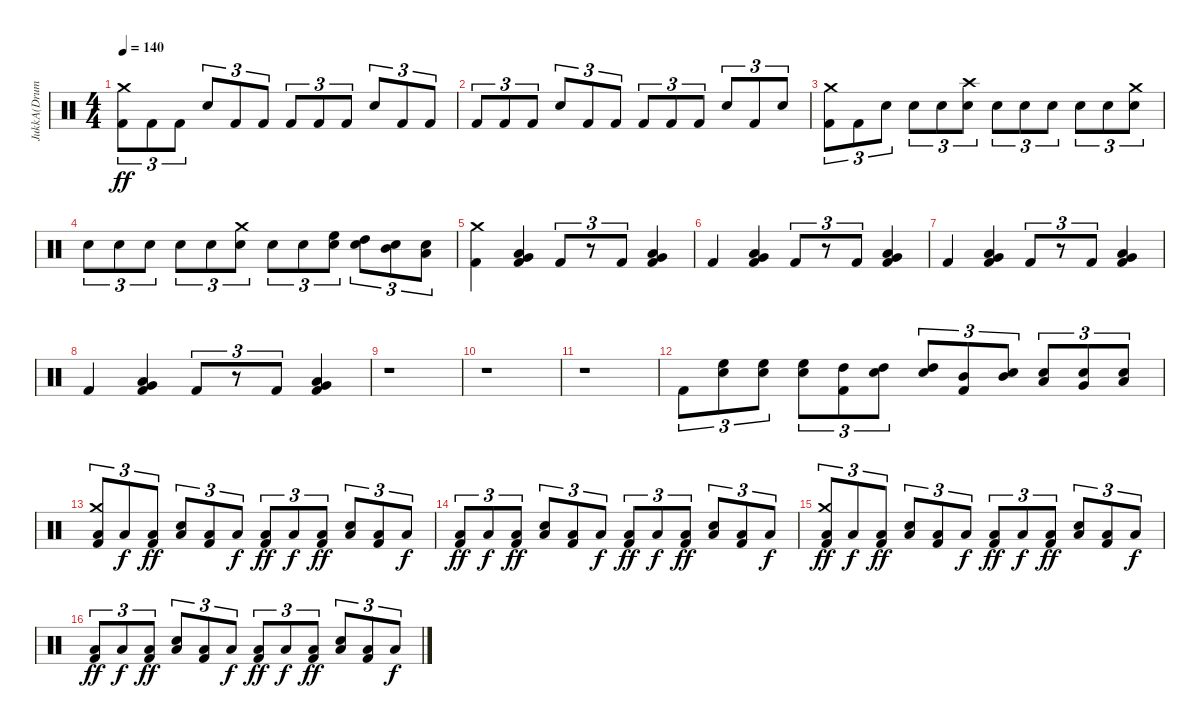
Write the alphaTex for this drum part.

\track ("JukkA(Drums)" "JukkA(Drum") {instrument percussion}
\staff {score}
\articulation defaults
\ts (4 4)
\tempo 140
\clef neutral
\ks c
("Kick (hit) 2" "Crash medium (hit)").8{tu (3 2) dy ff} "Kick (hit) 2".8{tu (3 2)} "Kick (hit) 2".8{tu (3 2)} "Snare (hit) 2".8{tu (3 2)} "Kick (hit) 2".8{tu (3 2)} "Kick (hit) 2".8{tu (3 2)} "Kick (hit) 2".8{tu (3 2)} "Kick (hit) 2".8{tu (3 2)} "Kick (hit) 2".8{tu (3 2)} "Snare (hit) 2".8{tu (3 2)} "Kick (hit) 2".8{tu (3 2)} "Kick (hit) 2".8{tu (3 2)} |
"Kick (hit) 2".8{tu (3 2)} "Kick (hit) 2".8{tu (3 2)} "Kick (hit) 2".8{tu (3 2)} "Snare (hit) 2".8{tu (3 2)} "Kick (hit) 2".8{tu (3 2)} "Kick (hit) 2".8{tu (3 2)} "Kick (hit) 2".8{tu (3 2)} "Kick (hit) 2".8{tu (3 2)} "Kick (hit) 2".8{tu (3 2)} "Snare (hit) 2".8{tu (3 2)} "Kick (hit) 2".8{tu (3 2)} "Snare (hit) 2".8{tu (3 2)} |
("Kick (hit) 2" "Crash medium (hit)").8{tu (3 2)} "Kick (hit) 2".8{tu (3 2)} "Snare (hit) 2".8{tu (3 2)} "Snare (hit) 2".8{tu (3 2)} "Snare (hit) 2".8{tu (3 2)} ("Snare (hit) 2" "Crash high (hit)").8{tu (3 2)} "Snare (hit) 2".8{tu (3 2)} "Snare (hit) 2".8{tu (3 2)} "Snare (hit) 2".8{tu (3 2)} "Snare (hit) 2".8{tu (3 2)} "Snare (hit) 2".8{tu (3 2)} ("Snare (hit) 2" "Crash medium (hit)").8{tu (3 2)} |
"Snare (hit) 2".8{tu (3 2)} "Snare (hit) 2".8{tu (3 2)} "Snare (hit) 2".8{tu (3 2)} "Snare (hit) 2".8{tu (3 2)} "Snare (hit) 2".8{tu (3 2)} ("Snare (hit) 2" "Crash medium (hit)").8{tu (3 2)} "Snare (hit) 2".8{tu (3 2)} "Snare (hit) 2".8{tu (3 2)} ("Snare (hit) 2" "High Floor Tom (hit)").8{tu (3 2)} ("Snare (hit) 2" "High Tom (hit)").8{tu (3 2)} ("Snare (hit) 2" "Mid Tom (hit)").8{tu (3 2)} ("Snare (hit) 2" "Low Tom (hit)").8{tu (3 2)} |
("Kick (hit) 2" "Crash medium (hit)").4 ("Kick (hit) 2" "Low Floor Tom (hit)" "Very Low Tom (hit)").4 "Kick (hit) 2".8{tu (3 2)} r.8{tu (3 2)} "Kick (hit) 2".8{tu (3 2)} ("Kick (hit) 2" "Low Floor Tom (hit)" "Very Low Tom (hit)").4 |
"Kick (hit) 2".4 ("Kick (hit) 2" "Low Floor Tom (hit)" "Very Low Tom (hit)").4 "Kick (hit) 2".8{tu (3 2)} r.8{tu (3 2)} "Kick (hit) 2".8{tu (3 2)} ("Kick (hit) 2" "Low Floor Tom (hit)" "Very Low Tom (hit)").4 |
"Kick (hit) 2".4 ("Kick (hit) 2" "Low Floor Tom (hit)" "Very Low Tom (hit)").4 "Kick (hit) 2".8{tu (3 2)} r.8{tu (3 2)} "Kick (hit) 2".8{tu (3 2)} ("Kick (hit) 2" "Low Floor Tom (hit)" "Very Low Tom (hit)").4 |
"Kick (hit) 2".4 ("Kick (hit) 2" "Low Floor Tom (hit)" "Very Low Tom (hit)").4 "Kick (hit) 2".8{tu (3 2)} r.8{tu (3 2)} "Kick (hit) 2".8{tu (3 2)} ("Kick (hit) 2" "Low Floor Tom (hit)" "Very Low Tom (hit)").4 |
r.1 |
r.1 |
r.1 |
"Kick (hit) 2".8{tu (3 2)} ("High Floor Tom (hit)" "Snare (hit) 2").8{tu (3 2)} ("High Floor Tom (hit)" "Snare (hit) 2").8{tu (3 2)} ("High Floor Tom (hit)" "Snare (hit) 2").8{tu (3 2)} ("High Tom (hit)" "Kick (hit) 2").8{tu (3 2)} ("High Tom (hit)" "Snare (hit) 2").8{tu (3 2)} ("High Tom (hit)" "Snare (hit) 2").8{tu (3 2)} ("Mid Tom (hit)" "Kick (hit) 2").8{tu (3 2)} ("Mid Tom (hit)" "Snare (hit) 2").8{tu (3 2)} ("Low Tom (hit)" "Snare (hit) 2").8{tu (3 2)} ("Very Low Tom (hit)" "Snare (hit) 2").8{tu (3 2)} ("Low Floor Tom (hit)" "Snare (hit) 2").8{tu (3 2)} |
("Kick (hit) 2" "Crash medium (hit)" "Low Floor Tom (hit)").8{tu (3 2)} "Low Floor Tom (hit)".8{tu (3 2) dy f} ("Kick (hit) 2" "Low Floor Tom (hit)").8{tu (3 2) dy ff} ("Snare (hit) 2" "Low Floor Tom (hit)").8{tu (3 2)} ("Kick (hit) 2" "Low Floor Tom (hit)").8{tu (3 2)} "Low Floor Tom (hit)".8{tu (3 2) dy f} ("Kick (hit) 2" "Low Floor Tom (hit)").8{tu (3 2) dy ff} "Low Floor Tom (hit)".8{tu (3 2) dy f} ("Kick (hit) 2" "Low Floor Tom (hit)").8{tu (3 2) dy ff} ("Snare (hit) 2" "Low Floor Tom (hit)").8{tu (3 2)} ("Kick (hit) 2" "Low Floor Tom (hit)").8{tu (3 2)} "Low Floor Tom (hit)".8{tu (3 2) dy f} |
("Kick (hit) 2" "Low Floor Tom (hit)").8{tu (3 2) dy ff} "Low Floor Tom (hit)".8{tu (3 2) dy f} ("Kick (hit) 2" "Low Floor Tom (hit)").8{tu (3 2) dy ff} ("Snare (hit) 2" "Low Floor Tom (hit)").8{tu (3 2)} ("Kick (hit) 2" "Low Floor Tom (hit)").8{tu (3 2)} "Low Floor Tom (hit)".8{tu (3 2) dy f} ("Kick (hit) 2" "Low Floor Tom (hit)").8{tu (3 2) dy ff} "Low Floor Tom (hit)".8{tu (3 2) dy f} ("Kick (hit) 2" "Low Floor Tom (hit)").8{tu (3 2) dy ff} ("Snare (hit) 2" "Low Floor Tom (hit)").8{tu (3 2)} ("Kick (hit) 2" "Low Floor Tom (hit)").8{tu (3 2)} "Low Floor Tom (hit)".8{tu (3 2) dy f} |
("Kick (hit) 2" "Crash medium (hit)" "Low Floor Tom (hit)").8{tu (3 2) dy ff} "Low Floor Tom (hit)".8{tu (3 2) dy f} ("Kick (hit) 2" "Low Floor Tom (hit)").8{tu (3 2) dy ff} ("Snare (hit) 2" "Low Floor Tom (hit)").8{tu (3 2)} ("Kick (hit) 2" "Low Floor Tom (hit)").8{tu (3 2)} "Low Floor Tom (hit)".8{tu (3 2) dy f} ("Kick (hit) 2" "Low Floor Tom (hit)").8{tu (3 2) dy ff} "Low Floor Tom (hit)".8{tu (3 2) dy f} ("Kick (hit) 2" "Low Floor Tom (hit)").8{tu (3 2) dy ff} ("Snare (hit) 2" "Low Floor Tom (hit)").8{tu (3 2)} ("Kick (hit) 2" "Low Floor Tom (hit)").8{tu (3 2)} "Low Floor Tom (hit)".8{tu (3 2) dy f} |
("Kick (hit) 2" "Low Floor Tom (hit)").8{tu (3 2) dy ff} "Low Floor Tom (hit)".8{tu (3 2) dy f} ("Kick (hit) 2" "Low Floor Tom (hit)").8{tu (3 2) dy ff} ("Snare (hit) 2" "Low Floor Tom (hit)").8{tu (3 2)} ("Kick (hit) 2" "Low Floor Tom (hit)").8{tu (3 2)} "Low Floor Tom (hit)".8{tu (3 2) dy f} ("Kick (hit) 2" "Low Floor Tom (hit)").8{tu (3 2) dy ff} "Low Floor Tom (hit)".8{tu (3 2) dy f} ("Kick (hit) 2" "Low Floor Tom (hit)").8{tu (3 2) dy ff} ("Snare (hit) 2" "Low Floor Tom (hit)").8{tu (3 2)} ("Kick (hit) 2" "Low Floor Tom (hit)").8{tu (3 2)} "Low Floor Tom (hit)".8{tu (3 2) dy f}
